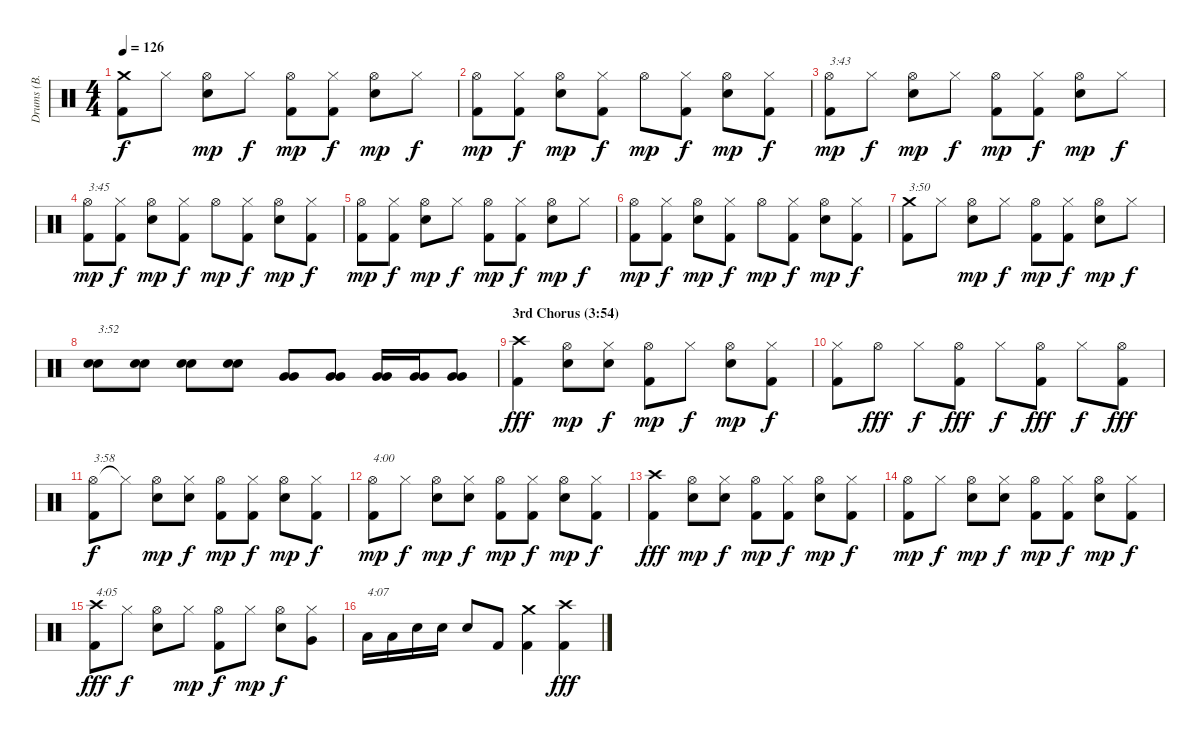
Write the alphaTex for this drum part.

\track ("Drums (B. Downey)" "Drums (B. ") {instrument percussion}
\staff {score}
\articulation defaults
\ts (4 4)
\tempo 126
\clef neutral
\ks c
("Crash medium (hit)" "Kick (hit) 2").8{dy f} "Hi-Hat (closed)".8 ("Hi-Hat (open)" "Electric Snare (hit)").8{dy mp} "Hi-Hat (closed)".8{dy f} ("Hi-Hat (open)" "Kick (hit) 2").8{dy mp} ("Hi-Hat (closed)" "Kick (hit) 2").8{dy f} ("Hi-Hat (open)" "Electric Snare (hit)").8{dy mp} "Hi-Hat (closed)".8{dy f} |
("Hi-Hat (open)" "Kick (hit) 2").8{dy mp} ("Hi-Hat (closed)" "Kick (hit) 2").8{dy f} ("Hi-Hat (open)" "Electric Snare (hit)").8{dy mp} ("Hi-Hat (closed)" "Kick (hit) 2").8{dy f} "Hi-Hat (open)".8{dy mp} ("Hi-Hat (closed)" "Kick (hit) 2").8{dy f} ("Hi-Hat (open)" "Electric Snare (hit)").8{dy mp} ("Hi-Hat (closed)" "Kick (hit) 2").8{dy f} |
("Hi-Hat (open)" "Kick (hit) 2").8{txt "3:43" dy mp} "Hi-Hat (closed)".8{dy f} ("Hi-Hat (open)" "Electric Snare (hit)").8{dy mp} "Hi-Hat (closed)".8{dy f} ("Hi-Hat (open)" "Kick (hit) 2").8{dy mp} ("Hi-Hat (closed)" "Kick (hit) 2").8{dy f} ("Hi-Hat (open)" "Electric Snare (hit)").8{dy mp} "Hi-Hat (closed)".8{dy f} |
("Hi-Hat (open)" "Kick (hit) 2").8{txt "3:45" dy mp} ("Hi-Hat (closed)" "Kick (hit) 2").8{dy f} ("Hi-Hat (open)" "Electric Snare (hit)").8{dy mp} ("Hi-Hat (closed)" "Kick (hit) 2").8{dy f} "Hi-Hat (open)".8{dy mp} ("Hi-Hat (closed)" "Kick (hit) 2").8{dy f} ("Hi-Hat (open)" "Electric Snare (hit)").8{dy mp} ("Hi-Hat (closed)" "Kick (hit) 2").8{dy f} |
("Hi-Hat (open)" "Kick (hit) 2").8{dy mp} ("Hi-Hat (closed)" "Kick (hit) 2").8{dy f} ("Hi-Hat (open)" "Electric Snare (hit)").8{dy mp} "Hi-Hat (closed)".8{dy f} ("Hi-Hat (open)" "Kick (hit) 2").8{dy mp} ("Hi-Hat (closed)" "Kick (hit) 2").8{dy f} ("Hi-Hat (open)" "Electric Snare (hit)").8{dy mp} "Hi-Hat (closed)".8{dy f} |
("Hi-Hat (open)" "Kick (hit) 2").8{dy mp} ("Hi-Hat (closed)" "Kick (hit) 2").8{dy f} ("Hi-Hat (open)" "Electric Snare (hit)").8{dy mp} ("Hi-Hat (closed)" "Kick (hit) 2").8{dy f} "Hi-Hat (open)".8{dy mp} ("Hi-Hat (closed)" "Kick (hit) 2").8{dy f} ("Hi-Hat (open)" "Electric Snare (hit)").8{dy mp} ("Hi-Hat (closed)" "Kick (hit) 2").8{dy f} |
("Crash medium (hit)" "Kick (hit) 2").8{txt "3:50"} "Hi-Hat (closed)".8 ("Hi-Hat (open)" "Electric Snare (hit)").8{dy mp} "Hi-Hat (closed)".8{dy f} ("Hi-Hat (open)" "Kick (hit) 2").8{dy mp} ("Hi-Hat (closed)" "Kick (hit) 2").8{dy f} ("Hi-Hat (open)" "Electric Snare (hit)").8{dy mp} "Hi-Hat (closed)".8{dy f} |
("Electric Snare (hit)" "Electric Snare (hit)").8{txt "3:52"} ("Electric Snare (hit)" "Electric Snare (hit)").8 ("Electric Snare (hit)" "Electric Snare (hit)").8 ("Electric Snare (hit)" "Electric Snare (hit)").8 ("Very Low Tom (hit)" "Very Low Tom (hit)").8 ("Very Low Tom (hit)" "Very Low Tom (hit)").8 ("Very Low Tom (hit)" "Very Low Tom (hit)").16 ("Very Low Tom (hit)" "Very Low Tom (hit)").16 ("Very Low Tom (hit)" "Very Low Tom (hit)").8 |
\section ("" "3rd Chorus (3:54)")
("Crash high (hit)" "Kick (hit) 2").4{dy fff} ("Hi-Hat (open)" "Electric Snare (hit)").8{dy mp} ("Hi-Hat (closed)" "Electric Snare (hit)").8{dy f} ("Hi-Hat (open)" "Kick (hit) 2").8{dy mp} "Hi-Hat (closed)".8{dy f} ("Hi-Hat (open)" "Electric Snare (hit)").8{dy mp} ("Hi-Hat (closed)" "Kick (hit) 2").8{dy f} |
("Hi-Hat (closed)" "Kick (hit) 2").8 "Hi-Hat (open)".8{dy fff} "Hi-Hat (closed)".8{dy f} ("Hi-Hat (open)" "Kick (hit) 2").8{dy fff} "Hi-Hat (closed)".8{dy f} ("Hi-Hat (open)" "Kick (hit) 2").8{dy fff} "Hi-Hat (closed)".8{dy f} ("Hi-Hat (open)" "Kick (hit) 2").8{dy fff} |
("Hi-Hat (open)" "Kick (hit) 2").8{txt "3:58" dy f} "Hi-Hat (closed)"{t}.8 ("Hi-Hat (open)" "Electric Snare (hit)").8{dy mp} ("Hi-Hat (closed)" "Electric Snare (hit)").8{dy f} ("Hi-Hat (open)" "Kick (hit) 2").8{dy mp} ("Hi-Hat (closed)" "Kick (hit) 2").8{dy f} ("Hi-Hat (open)" "Electric Snare (hit)").8{dy mp} ("Hi-Hat (closed)" "Kick (hit) 2").8{dy f} |
("Hi-Hat (open)" "Kick (hit) 2").8{txt "4:00" dy mp} "Hi-Hat (closed)".8{dy f} ("Hi-Hat (open)" "Electric Snare (hit)").8{dy mp} ("Hi-Hat (closed)" "Electric Snare (hit)").8{dy f} ("Hi-Hat (open)" "Kick (hit) 2").8{dy mp} ("Hi-Hat (closed)" "Kick (hit) 2").8{dy f} ("Hi-Hat (open)" "Electric Snare (hit)").8{dy mp} ("Hi-Hat (closed)" "Kick (hit) 2").8{dy f} |
("Crash high (hit)" "Kick (hit) 2").4{dy fff} ("Hi-Hat (open)" "Electric Snare (hit)").8{dy mp} ("Hi-Hat (closed)" "Electric Snare (hit)").8{dy f} ("Hi-Hat (open)" "Kick (hit) 2").8{dy mp} ("Hi-Hat (closed)" "Kick (hit) 2").8{dy f} ("Hi-Hat (open)" "Electric Snare (hit)").8{dy mp} ("Hi-Hat (closed)" "Kick (hit) 2").8{dy f} |
("Hi-Hat (open)" "Kick (hit) 2").8{dy mp} "Hi-Hat (closed)".8{dy f} ("Hi-Hat (open)" "Electric Snare (hit)").8{dy mp} ("Hi-Hat (closed)" "Electric Snare (hit)").8{dy f} ("Hi-Hat (open)" "Kick (hit) 2").8{dy mp} ("Hi-Hat (closed)" "Kick (hit) 2").8{dy f} ("Hi-Hat (open)" "Electric Snare (hit)").8{dy mp} ("Hi-Hat (closed)" "Kick (hit) 2").8{dy f} |
("Crash high (hit)" "Kick (hit) 2").8{txt "4:05" dy fff} "Hi-Hat (closed)".8{dy f} ("Hi-Hat (open)" "Electric Snare (hit)").8 "Hi-Hat (closed)".8{dy mp} ("Hi-Hat (open)" "Kick (hit) 2").8{dy f} "Hi-Hat (closed)".8{dy mp} ("Hi-Hat (open)" "Electric Snare (hit)").8{dy f} ("Hi-Hat (closed)" "Very Low Tom (hit)").8 |
"Low Tom (hit)".16{txt "4:07"} "Low Tom (hit)".16 "Electric Snare (hit)".16 "Electric Snare (hit)".16 "Electric Snare (hit)".8 "Kick (hit) 2".8 ("Crash medium (hit)" "Kick (hit) 2").4{balance 13} ("Crash high (hit)" "Kick (hit) 2").4{dy fff balance 3}
